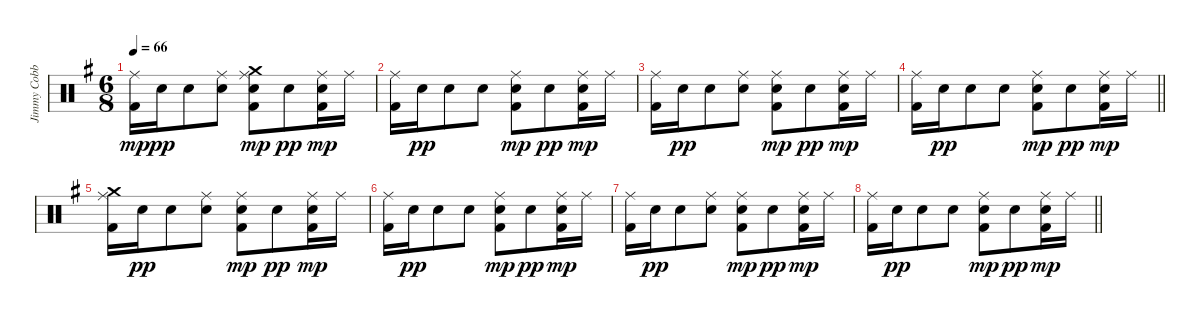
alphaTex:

\track ("Jimmy Cobb" "Jimmy Cobb") {instrument percussion}
\staff {score}
\articulation defaults
\ts (6 8)
\tempo 66
\clef neutral
\ks g
("Ride (middle)" "Kick (hit) 2").16{dy mp} "Snare (hit) 2".16{dy pp} "Snare (hit) 2".8 ("Ride (middle)" "Snare (hit) 2").8 ("Ride (middle)" "Crash medium (hit)" "Electric Snare (hit)" "Kick (hit) 2").8{dy mp} "Snare (hit) 2".8{dy pp} ("Ride (middle)" "Snare (hit) 2" "Kick (hit) 2").16{dy mp} "Ride (middle)".16 |
("Ride (middle)" "Kick (hit) 2").16 "Snare (hit) 2".16{dy pp} "Snare (hit) 2".8 "Snare (hit) 2".8 ("Ride (middle)" "Snare (hit) 2" "Kick (hit) 2").8{dy mp} "Snare (hit) 2".8{dy pp} ("Ride (middle)" "Snare (hit) 2" "Kick (hit) 2").16{dy mp} "Ride (middle)".16 |
("Ride (middle)" "Kick (hit) 2").16 "Snare (hit) 2".16{dy pp} "Snare (hit) 2".8 ("Ride (middle)" "Snare (hit) 2").8 ("Ride (middle)" "Snare (hit) 2" "Kick (hit) 2").8{dy mp} "Snare (hit) 2".8{dy pp} ("Ride (middle)" "Snare (hit) 2" "Kick (hit) 2").16{dy mp} "Ride (middle)".16 |
\barLineRight lightlight
("Ride (middle)" "Kick (hit) 2").16 "Snare (hit) 2".16{dy pp} "Snare (hit) 2".8 "Snare (hit) 2".8 ("Ride (middle)" "Snare (hit) 2" "Kick (hit) 2").8{dy mp} "Snare (hit) 2".8{dy pp} ("Ride (middle)" "Snare (hit) 2" "Kick (hit) 2").16{dy mp} "Ride (middle)".16 |
("Ride (middle)" "Crash medium (hit)" "Kick (hit) 2").16 "Snare (hit) 2".16{dy pp} "Snare (hit) 2".8 ("Ride (middle)" "Snare (hit) 2").8 ("Ride (middle)" "Snare (hit) 2" "Kick (hit) 2").8{dy mp} "Snare (hit) 2".8{dy pp} ("Ride (middle)" "Snare (hit) 2" "Kick (hit) 2").16{dy mp} "Ride (middle)".16 |
("Ride (middle)" "Kick (hit) 2").16 "Snare (hit) 2".16{dy pp} "Snare (hit) 2".8 "Snare (hit) 2".8 ("Ride (middle)" "Snare (hit) 2" "Kick (hit) 2").8{dy mp} "Snare (hit) 2".8{dy pp} ("Ride (middle)" "Snare (hit) 2" "Kick (hit) 2").16{dy mp} "Ride (middle)".16 |
("Ride (middle)" "Kick (hit) 2").16 "Snare (hit) 2".16{dy pp} "Snare (hit) 2".8 ("Ride (middle)" "Snare (hit) 2").8 ("Ride (middle)" "Snare (hit) 2" "Kick (hit) 2").8{dy mp} "Snare (hit) 2".8{dy pp} ("Ride (middle)" "Snare (hit) 2" "Kick (hit) 2").16{dy mp} "Ride (middle)".16 |
\barLineRight lightlight
("Ride (middle)" "Kick (hit) 2").16 "Snare (hit) 2".16{dy pp} "Snare (hit) 2".8 "Snare (hit) 2".8 ("Ride (middle)" "Snare (hit) 2" "Kick (hit) 2").8{dy mp} "Snare (hit) 2".8{dy pp} ("Ride (middle)" "Snare (hit) 2" "Kick (hit) 2").16{dy mp} "Ride (middle)".16
